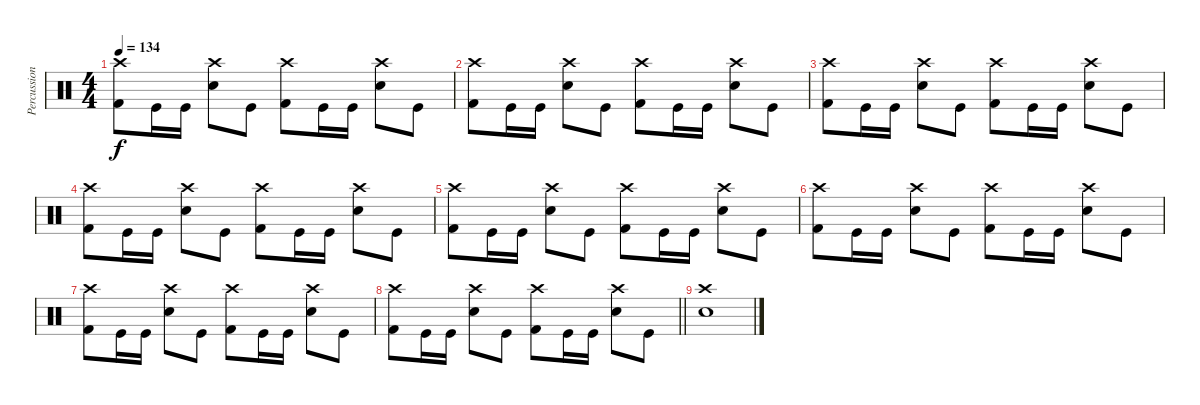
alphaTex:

\track ("Percussion" "Percussion") {instrument percussion}
\staff {score}
\articulation defaults
\ts (4 4)
\tempo 134
\clef neutral
\ks c
("Crash high (hit)" "Kick (hit) 2").8{dy f} "Kick (hit)".16 "Kick (hit)".16 ("Crash high (hit)" "Electric Snare (hit)").8 "Kick (hit)".8 ("Crash high (hit)" "Kick (hit) 2").8 "Kick (hit)".16 "Kick (hit)".16 ("Crash high (hit)" "Electric Snare (hit)").8 "Kick (hit)".8 |
("Crash high (hit)" "Kick (hit) 2").8 "Kick (hit)".16 "Kick (hit)".16 ("Crash high (hit)" "Electric Snare (hit)").8 "Kick (hit)".8 ("Crash high (hit)" "Kick (hit) 2").8 "Kick (hit)".16 "Kick (hit)".16 ("Crash high (hit)" "Electric Snare (hit)").8 "Kick (hit)".8 |
("Crash high (hit)" "Kick (hit) 2").8 "Kick (hit)".16 "Kick (hit)".16 ("Crash high (hit)" "Electric Snare (hit)").8 "Kick (hit)".8 ("Crash high (hit)" "Kick (hit) 2").8 "Kick (hit)".16 "Kick (hit)".16 ("Crash high (hit)" "Electric Snare (hit)").8 "Kick (hit)".8 |
("Crash high (hit)" "Kick (hit) 2").8 "Kick (hit)".16 "Kick (hit)".16 ("Crash high (hit)" "Electric Snare (hit)").8 "Kick (hit)".8 ("Crash high (hit)" "Kick (hit) 2").8 "Kick (hit)".16 "Kick (hit)".16 ("Crash high (hit)" "Electric Snare (hit)").8 "Kick (hit)".8 |
("Crash high (hit)" "Kick (hit) 2").8 "Kick (hit)".16 "Kick (hit)".16 ("Crash high (hit)" "Electric Snare (hit)").8 "Kick (hit)".8 ("Crash high (hit)" "Kick (hit) 2").8 "Kick (hit)".16 "Kick (hit)".16 ("Crash high (hit)" "Electric Snare (hit)").8 "Kick (hit)".8 |
("Crash high (hit)" "Kick (hit) 2").8 "Kick (hit)".16 "Kick (hit)".16 ("Crash high (hit)" "Electric Snare (hit)").8 "Kick (hit)".8 ("Crash high (hit)" "Kick (hit) 2").8 "Kick (hit)".16 "Kick (hit)".16 ("Crash high (hit)" "Electric Snare (hit)").8 "Kick (hit)".8 |
("Crash high (hit)" "Kick (hit) 2").8 "Kick (hit)".16 "Kick (hit)".16 ("Crash high (hit)" "Electric Snare (hit)").8 "Kick (hit)".8 ("Crash high (hit)" "Kick (hit) 2").8 "Kick (hit)".16 "Kick (hit)".16 ("Crash high (hit)" "Electric Snare (hit)").8 "Kick (hit)".8 |
\barLineRight lightlight
("Crash high (hit)" "Kick (hit) 2").8 "Kick (hit)".16 "Kick (hit)".16 ("Crash high (hit)" "Electric Snare (hit)").8 "Kick (hit)".8 ("Crash high (hit)" "Kick (hit) 2").8 "Kick (hit)".16 "Kick (hit)".16 ("Crash high (hit)" "Electric Snare (hit)").8 "Kick (hit)".8 |
("Crash high (hit)" "Snare (hit) 2").1
